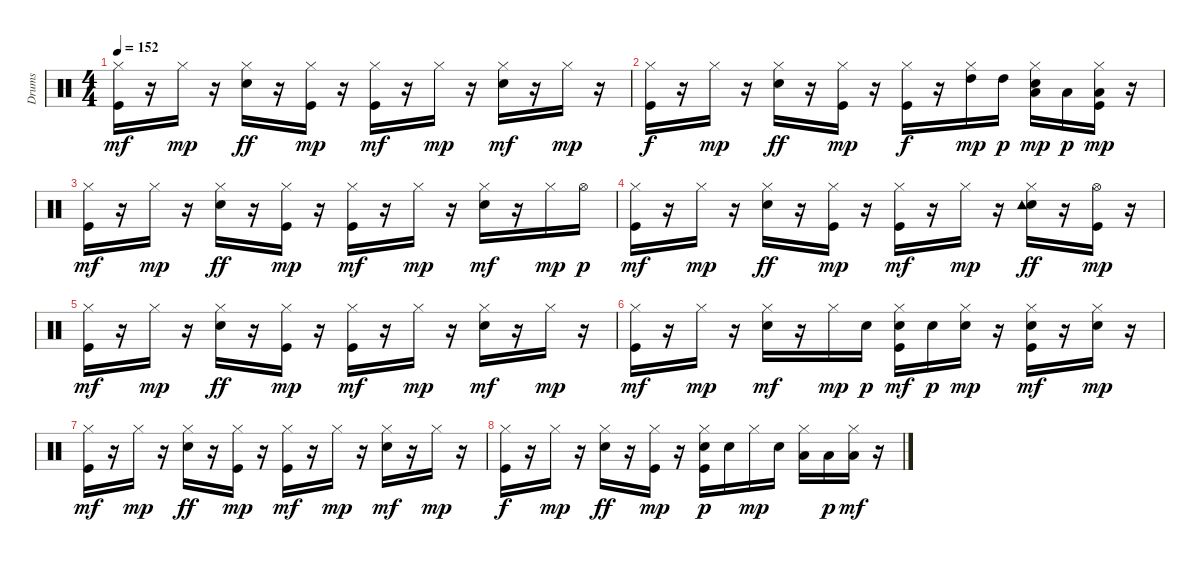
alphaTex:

\track ("Drums   " "Drums   ") {instrument percussion}
\staff {score}
\articulation defaults
\ts (4 4)
\tempo 152
\clef neutral
\ks c
("Kick (hit)" "Hi-Hat (closed)").16{dy mf} r.16 "Hi-Hat (closed)".16{dy mp} r.16 ("Snare (hit) 2" "Hi-Hat (closed)").16{dy ff} r.16 ("Kick (hit)" "Hi-Hat (closed)").16{dy mp} r.16 ("Kick (hit)" "Hi-Hat (closed)").16{dy mf} r.16 "Hi-Hat (closed)".16{dy mp} r.16 ("Snare (hit) 2" "Hi-Hat (closed)").16{dy mf} r.16 "Hi-Hat (closed)".16{dy mp} r.16 |
("Kick (hit)" "Hi-Hat (closed)").16{dy f} r.16 "Hi-Hat (closed)".16{dy mp} r.16 ("Snare (hit) 2" "Hi-Hat (closed)").16{dy ff} r.16 ("Kick (hit)" "Hi-Hat (closed)").16{dy mp} r.16 ("Kick (hit)" "Hi-Hat (closed)").16{dy f} r.16 ("Hi-Hat (closed)" "High Tom (hit)").16{dy mp} "High Tom (hit)".16{dy p} ("Snare (hit) 2" "Hi-Hat (closed)" "Low Tom (hit)").16{dy mp} "Low Tom (hit)".16{dy p} ("Kick (hit)" "Hi-Hat (closed)" "Low Floor Tom (hit)").16{dy mp} r.16 |
("Kick (hit)" "Hi-Hat (closed)").16{dy mf} r.16 "Hi-Hat (closed)".16{dy mp} r.16 ("Snare (hit) 2" "Hi-Hat (closed)").16{dy ff} r.16 ("Kick (hit)" "Hi-Hat (closed)").16{dy mp} r.16 ("Kick (hit)" "Hi-Hat (closed)").16{dy mf} r.16 "Hi-Hat (closed)".16{dy mp} r.16 ("Snare (hit) 2" "Hi-Hat (closed)").16{dy mf} r.16 "Hi-Hat (closed)".16{dy mp} "Hi-Hat (open)".16{dy p} |
("Kick (hit)" "Hi-Hat (closed)").16{dy mf} r.16 "Hi-Hat (closed)".16{dy mp} r.16 ("Snare (hit) 2" "Hi-Hat (closed)").16{dy ff} r.16 ("Kick (hit)" "Hi-Hat (closed)").16{dy mp} r.16 ("Kick (hit)" "Hi-Hat (closed)").16{dy mf} r.16 "Hi-Hat (closed)".16{dy mp} r.16 ("Snare (hit) 2" "Hi-Hat (closed)" "Tambourine (hit)").16{dy ff} r.16 ("Kick (hit)" "Hi-Hat (open)").16{dy mp} r.16 |
("Kick (hit)" "Hi-Hat (closed)").16{dy mf volume 14} r.16 "Hi-Hat (closed)".16{dy mp volume 13} r.16 ("Snare (hit) 2" "Hi-Hat (closed)").16{dy ff volume 13} r.16 ("Kick (hit)" "Hi-Hat (closed)").16{dy mp volume 12} r.16 ("Kick (hit)" "Hi-Hat (closed)").16{dy mf volume 12} r.16 "Hi-Hat (closed)".16{dy mp volume 11} r.16 ("Snare (hit) 2" "Hi-Hat (closed)").16{dy mf volume 11} r.16 "Hi-Hat (closed)".16{dy mp volume 10} r.16 |
("Kick (hit)" "Hi-Hat (closed)").16{dy mf volume 10} r.16 "Hi-Hat (closed)".16{dy mp volume 10} r.16 ("Snare (hit) 2" "Hi-Hat (closed)").16{dy mf volume 9} r.16 "Hi-Hat (closed)".16{dy mp volume 9} "Snare (hit) 2".16{dy p} ("Kick (hit)" "Snare (hit) 2" "Hi-Hat (closed)").16{dy mf volume 8} "Snare (hit) 2".16{dy p} ("Snare (hit) 2" "Hi-Hat (closed)").16{dy mp volume 8} r.16 ("Kick (hit)" "Snare (hit) 2" "Hi-Hat (closed)").16{dy mf volume 8} r.16 ("Snare (hit) 2" "Hi-Hat (closed)").16{dy mp volume 7} r.16 |
("Kick (hit)" "Hi-Hat (closed)").16{dy mf volume 7} r.16 "Hi-Hat (closed)".16{dy mp volume 6} r.16 ("Snare (hit) 2" "Hi-Hat (closed)").16{dy ff volume 6} r.16 ("Kick (hit)" "Hi-Hat (closed)").16{dy mp volume 5} r.16 ("Kick (hit)" "Hi-Hat (closed)").16{dy mf volume 5} r.16 "Hi-Hat (closed)".16{dy mp volume 5} r.16 ("Snare (hit) 2" "Hi-Hat (closed)").16{dy mf volume 4} r.16 "Hi-Hat (closed)".16{dy mp volume 4} r.16 |
("Kick (hit)" "Hi-Hat (closed)").16{dy f volume 3} r.16 "Hi-Hat (closed)".16{dy mp volume 3} r.16 ("Snare (hit) 2" "Hi-Hat (closed)").16{dy ff volume 2} r.16 ("Kick (hit)" "Hi-Hat (closed)").16{dy mp volume 2} r.16 ("Kick (hit)" "Snare (hit) 2" "Hi-Hat (closed)").16{dy p volume 2} "Snare (hit) 2".16 "Hi-Hat (closed)".16{dy mp volume 1} "Snare (hit) 2".16 ("Hi-Hat (closed)" "Low Tom (hit)").16{volume 1} "Low Tom (hit)".16{dy p} ("Hi-Hat (closed)" "Low Tom (hit)").16{dy mf volume 0} r.16
